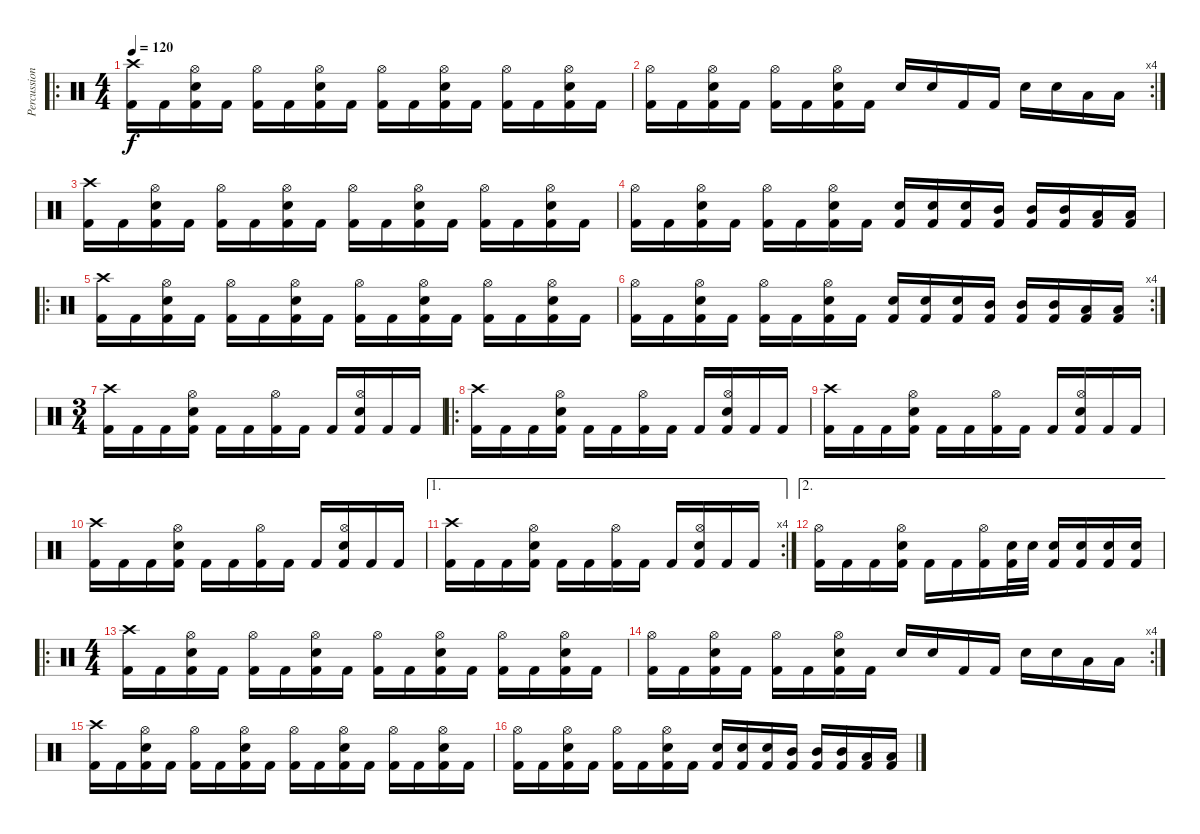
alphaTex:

\track ("Percussion" "Percussion") {instrument percussion}
\staff {score}
\articulation defaults
\ro
\ts (4 4)
\tempo 120
\clef neutral
\ks c
("Crash high (hit)" "Kick (hit) 2").16{dy f} "Kick (hit) 2".16 ("Hi-Hat (open)" "Snare (hit) 2" "Kick (hit) 2").16 "Kick (hit) 2".16 ("Hi-Hat (open)" "Kick (hit) 2").16 "Kick (hit) 2".16 ("Hi-Hat (open)" "Snare (hit) 2" "Kick (hit) 2").16 "Kick (hit) 2".16 ("Hi-Hat (open)" "Kick (hit) 2").16 "Kick (hit) 2".16 ("Hi-Hat (open)" "Snare (hit) 2" "Kick (hit) 2").16 "Kick (hit) 2".16 ("Hi-Hat (open)" "Kick (hit) 2").16 "Kick (hit) 2".16 ("Hi-Hat (open)" "Snare (hit) 2" "Kick (hit) 2").16 "Kick (hit) 2".16 |
\rc 4
("Hi-Hat (open)" "Kick (hit) 2").16 "Kick (hit) 2".16 ("Hi-Hat (open)" "Snare (hit) 2" "Kick (hit) 2").16 "Kick (hit) 2".16 ("Hi-Hat (open)" "Kick (hit) 2").16 "Kick (hit) 2".16 ("Hi-Hat (open)" "Snare (hit) 2" "Kick (hit) 2").16 "Kick (hit) 2".16 "Snare (hit) 2".16 "Snare (hit) 2".16 "Kick (hit) 2".16 "Kick (hit) 2".16 "Snare (hit) 2".16 "Snare (hit) 2".16 "Low Tom (hit)".16 "Low Tom (hit)".16 |
("Crash high (hit)" "Kick (hit) 2").16 "Kick (hit) 2".16 ("Hi-Hat (open)" "Snare (hit) 2" "Kick (hit) 2").16 "Kick (hit) 2".16 ("Hi-Hat (open)" "Kick (hit) 2").16 "Kick (hit) 2".16 ("Hi-Hat (open)" "Snare (hit) 2" "Kick (hit) 2").16 "Kick (hit) 2".16 ("Hi-Hat (open)" "Kick (hit) 2").16 "Kick (hit) 2".16 ("Hi-Hat (open)" "Snare (hit) 2" "Kick (hit) 2").16 "Kick (hit) 2".16 ("Hi-Hat (open)" "Kick (hit) 2").16 "Kick (hit) 2".16 ("Hi-Hat (open)" "Snare (hit) 2" "Kick (hit) 2").16 "Kick (hit) 2".16 |
("Hi-Hat (open)" "Kick (hit) 2").16 "Kick (hit) 2".16 ("Hi-Hat (open)" "Snare (hit) 2" "Kick (hit) 2").16 "Kick (hit) 2".16 ("Hi-Hat (open)" "Kick (hit) 2").16 "Kick (hit) 2".16 ("Hi-Hat (open)" "Snare (hit) 2" "Kick (hit) 2").16 "Kick (hit) 2".16 ("Snare (hit) 2" "Kick (hit) 2").16 ("Snare (hit) 2" "Kick (hit) 2").16 ("Snare (hit) 2" "Kick (hit) 2").16 ("Mid Tom (hit)" "Kick (hit) 2").16 ("Mid Tom (hit)" "Kick (hit) 2").16 ("Mid Tom (hit)" "Kick (hit) 2").16 ("Low Tom (hit)" "Kick (hit) 2").16 ("Low Tom (hit)" "Kick (hit) 2").16 |
\ro
("Crash high (hit)" "Kick (hit) 2").16 "Kick (hit) 2".16 ("Hi-Hat (open)" "Snare (hit) 2" "Kick (hit) 2").16 "Kick (hit) 2".16 ("Hi-Hat (open)" "Kick (hit) 2").16 "Kick (hit) 2".16 ("Hi-Hat (open)" "Snare (hit) 2" "Kick (hit) 2").16 "Kick (hit) 2".16 ("Hi-Hat (open)" "Kick (hit) 2").16 "Kick (hit) 2".16 ("Hi-Hat (open)" "Snare (hit) 2" "Kick (hit) 2").16 "Kick (hit) 2".16 ("Hi-Hat (open)" "Kick (hit) 2").16 "Kick (hit) 2".16 ("Hi-Hat (open)" "Snare (hit) 2" "Kick (hit) 2").16 "Kick (hit) 2".16 |
\rc 4
("Hi-Hat (open)" "Kick (hit) 2").16 "Kick (hit) 2".16 ("Hi-Hat (open)" "Snare (hit) 2" "Kick (hit) 2").16 "Kick (hit) 2".16 ("Hi-Hat (open)" "Kick (hit) 2").16 "Kick (hit) 2".16 ("Hi-Hat (open)" "Snare (hit) 2" "Kick (hit) 2").16 "Kick (hit) 2".16 ("Snare (hit) 2" "Kick (hit) 2").16 ("Snare (hit) 2" "Kick (hit) 2").16 ("Snare (hit) 2" "Kick (hit) 2").16 ("Mid Tom (hit)" "Kick (hit) 2").16 ("Mid Tom (hit)" "Kick (hit) 2").16 ("Mid Tom (hit)" "Kick (hit) 2").16 ("Low Tom (hit)" "Kick (hit) 2").16 ("Low Tom (hit)" "Kick (hit) 2").16 |
\ts (3 4)
("Crash high (hit)" "Kick (hit) 2").16 "Kick (hit) 2".16 "Kick (hit) 2".16 ("Hi-Hat (open)" "Snare (hit) 2" "Kick (hit) 2").16 "Kick (hit) 2".16 "Kick (hit) 2".16 ("Hi-Hat (open)" "Kick (hit) 2").16 "Kick (hit) 2".16 "Kick (hit) 2".16 ("Hi-Hat (open)" "Snare (hit) 2" "Kick (hit) 2").16 "Kick (hit) 2".16 "Kick (hit) 2".16 |
\ro
("Crash high (hit)" "Kick (hit) 2").16 "Kick (hit) 2".16 "Kick (hit) 2".16 ("Hi-Hat (open)" "Snare (hit) 2" "Kick (hit) 2").16 "Kick (hit) 2".16 "Kick (hit) 2".16 ("Hi-Hat (open)" "Kick (hit) 2").16 "Kick (hit) 2".16 "Kick (hit) 2".16 ("Hi-Hat (open)" "Snare (hit) 2" "Kick (hit) 2").16 "Kick (hit) 2".16 "Kick (hit) 2".16 |
("Crash high (hit)" "Kick (hit) 2").16 "Kick (hit) 2".16 "Kick (hit) 2".16 ("Hi-Hat (open)" "Snare (hit) 2" "Kick (hit) 2").16 "Kick (hit) 2".16 "Kick (hit) 2".16 ("Hi-Hat (open)" "Kick (hit) 2").16 "Kick (hit) 2".16 "Kick (hit) 2".16 ("Hi-Hat (open)" "Snare (hit) 2" "Kick (hit) 2").16 "Kick (hit) 2".16 "Kick (hit) 2".16 |
("Crash high (hit)" "Kick (hit) 2").16 "Kick (hit) 2".16 "Kick (hit) 2".16 ("Hi-Hat (open)" "Snare (hit) 2" "Kick (hit) 2").16 "Kick (hit) 2".16 "Kick (hit) 2".16 ("Hi-Hat (open)" "Kick (hit) 2").16 "Kick (hit) 2".16 "Kick (hit) 2".16 ("Hi-Hat (open)" "Snare (hit) 2" "Kick (hit) 2").16 "Kick (hit) 2".16 "Kick (hit) 2".16 |
\ae 1
\rc 4
("Crash high (hit)" "Kick (hit) 2").16 "Kick (hit) 2".16 "Kick (hit) 2".16 ("Hi-Hat (open)" "Snare (hit) 2" "Kick (hit) 2").16 "Kick (hit) 2".16 "Kick (hit) 2".16 ("Hi-Hat (open)" "Kick (hit) 2").16 "Kick (hit) 2".16 "Kick (hit) 2".16 ("Hi-Hat (open)" "Snare (hit) 2" "Kick (hit) 2").16 "Kick (hit) 2".16 "Kick (hit) 2".16 |
\ae 2
("Hi-Hat (open)" "Kick (hit) 2").16 "Kick (hit) 2".16 "Kick (hit) 2".16 ("Hi-Hat (open)" "Snare (hit) 2" "Kick (hit) 2").16 "Kick (hit) 2".16 "Kick (hit) 2".16 ("Hi-Hat (open)" "Kick (hit) 2").16 ("Snare (hit) 2" "Kick (hit) 2").32 "Snare (hit) 2".32 ("Snare (hit) 2" "Kick (hit) 2").16 ("Snare (hit) 2" "Kick (hit) 2").16 ("Snare (hit) 2" "Kick (hit) 2").16 ("Snare (hit) 2" "Kick (hit) 2").16 |
\ro
\ts (4 4)
("Crash high (hit)" "Kick (hit) 2").16 "Kick (hit) 2".16 ("Hi-Hat (open)" "Snare (hit) 2" "Kick (hit) 2").16 "Kick (hit) 2".16 ("Hi-Hat (open)" "Kick (hit) 2").16 "Kick (hit) 2".16 ("Hi-Hat (open)" "Snare (hit) 2" "Kick (hit) 2").16 "Kick (hit) 2".16 ("Hi-Hat (open)" "Kick (hit) 2").16 "Kick (hit) 2".16 ("Hi-Hat (open)" "Snare (hit) 2" "Kick (hit) 2").16 "Kick (hit) 2".16 ("Hi-Hat (open)" "Kick (hit) 2").16 "Kick (hit) 2".16 ("Hi-Hat (open)" "Snare (hit) 2" "Kick (hit) 2").16 "Kick (hit) 2".16 |
\rc 4
("Hi-Hat (open)" "Kick (hit) 2").16 "Kick (hit) 2".16 ("Hi-Hat (open)" "Snare (hit) 2" "Kick (hit) 2").16 "Kick (hit) 2".16 ("Hi-Hat (open)" "Kick (hit) 2").16 "Kick (hit) 2".16 ("Hi-Hat (open)" "Snare (hit) 2" "Kick (hit) 2").16 "Kick (hit) 2".16 "Snare (hit) 2".16 "Snare (hit) 2".16 "Kick (hit) 2".16 "Kick (hit) 2".16 "Snare (hit) 2".16 "Snare (hit) 2".16 "Low Tom (hit)".16 "Low Tom (hit)".16 |
("Crash high (hit)" "Kick (hit) 2").16 "Kick (hit) 2".16 ("Hi-Hat (open)" "Snare (hit) 2" "Kick (hit) 2").16 "Kick (hit) 2".16 ("Hi-Hat (open)" "Kick (hit) 2").16 "Kick (hit) 2".16 ("Hi-Hat (open)" "Snare (hit) 2" "Kick (hit) 2").16 "Kick (hit) 2".16 ("Hi-Hat (open)" "Kick (hit) 2").16 "Kick (hit) 2".16 ("Hi-Hat (open)" "Snare (hit) 2" "Kick (hit) 2").16 "Kick (hit) 2".16 ("Hi-Hat (open)" "Kick (hit) 2").16 "Kick (hit) 2".16 ("Hi-Hat (open)" "Snare (hit) 2" "Kick (hit) 2").16 "Kick (hit) 2".16 |
("Hi-Hat (open)" "Kick (hit) 2").16 "Kick (hit) 2".16 ("Hi-Hat (open)" "Snare (hit) 2" "Kick (hit) 2").16 "Kick (hit) 2".16 ("Hi-Hat (open)" "Kick (hit) 2").16 "Kick (hit) 2".16 ("Hi-Hat (open)" "Snare (hit) 2" "Kick (hit) 2").16 "Kick (hit) 2".16 ("Snare (hit) 2" "Kick (hit) 2").16 ("Snare (hit) 2" "Kick (hit) 2").16 ("Snare (hit) 2" "Kick (hit) 2").16 ("Mid Tom (hit)" "Kick (hit) 2").16 ("Mid Tom (hit)" "Kick (hit) 2").16 ("Mid Tom (hit)" "Kick (hit) 2").16 ("Low Tom (hit)" "Kick (hit) 2").16 ("Low Tom (hit)" "Kick (hit) 2").16
